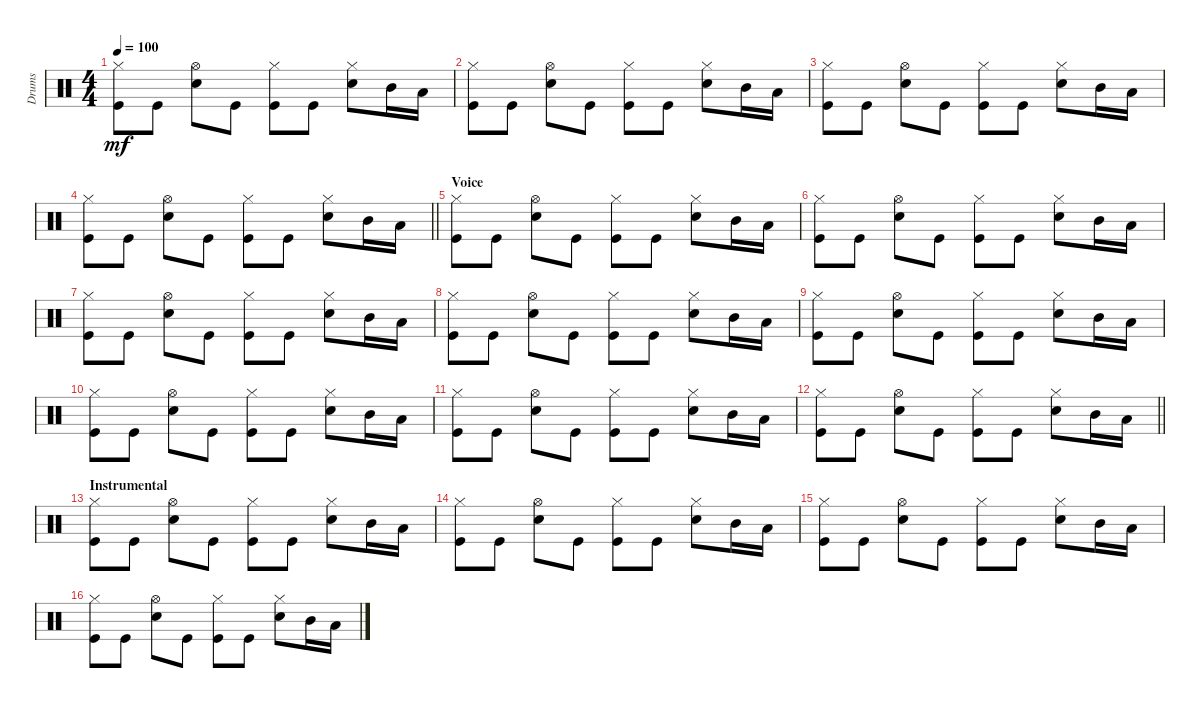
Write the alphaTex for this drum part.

\track ("Drums" "Drums") {instrument percussion}
\staff {score}
\articulation defaults
\ts (4 4)
\tempo 100
\clef neutral
\ks c
("Kick (hit)" "Hi-Hat (closed)").8{dy mf} "Kick (hit)".8 ("Electric Snare (hit)" "Hi-Hat (open)").8 "Kick (hit)".8 ("Kick (hit)" "Hi-Hat (closed)").8 "Kick (hit)".8 ("Electric Snare (hit)" "Hi-Hat (closed)").8 "Mid Tom (hit)".16 "Low Tom (hit)".16 |
("Kick (hit)" "Hi-Hat (closed)").8 "Kick (hit)".8 ("Electric Snare (hit)" "Hi-Hat (open)").8 "Kick (hit)".8 ("Kick (hit)" "Hi-Hat (closed)").8 "Kick (hit)".8 ("Electric Snare (hit)" "Hi-Hat (closed)").8 "Mid Tom (hit)".16 "Low Tom (hit)".16 |
("Kick (hit)" "Hi-Hat (closed)").8 "Kick (hit)".8 ("Electric Snare (hit)" "Hi-Hat (open)").8 "Kick (hit)".8 ("Kick (hit)" "Hi-Hat (closed)").8 "Kick (hit)".8 ("Electric Snare (hit)" "Hi-Hat (closed)").8 "Mid Tom (hit)".16 "Low Tom (hit)".16 |
\barLineRight lightlight
("Kick (hit)" "Hi-Hat (closed)").8 "Kick (hit)".8 ("Electric Snare (hit)" "Hi-Hat (open)").8 "Kick (hit)".8 ("Kick (hit)" "Hi-Hat (closed)").8 "Kick (hit)".8 ("Electric Snare (hit)" "Hi-Hat (closed)").8 "Mid Tom (hit)".16 "Low Tom (hit)".16 |
\section ("" "Voice")
("Kick (hit)" "Hi-Hat (closed)").8 "Kick (hit)".8 ("Electric Snare (hit)" "Hi-Hat (open)").8 "Kick (hit)".8 ("Kick (hit)" "Hi-Hat (closed)").8 "Kick (hit)".8 ("Electric Snare (hit)" "Hi-Hat (closed)").8 "Mid Tom (hit)".16 "Low Tom (hit)".16 |
("Kick (hit)" "Hi-Hat (closed)").8 "Kick (hit)".8 ("Electric Snare (hit)" "Hi-Hat (open)").8 "Kick (hit)".8 ("Kick (hit)" "Hi-Hat (closed)").8 "Kick (hit)".8 ("Electric Snare (hit)" "Hi-Hat (closed)").8 "Mid Tom (hit)".16 "Low Tom (hit)".16 |
("Kick (hit)" "Hi-Hat (closed)").8 "Kick (hit)".8 ("Electric Snare (hit)" "Hi-Hat (open)").8 "Kick (hit)".8 ("Kick (hit)" "Hi-Hat (closed)").8 "Kick (hit)".8 ("Electric Snare (hit)" "Hi-Hat (closed)").8 "Mid Tom (hit)".16 "Low Tom (hit)".16 |
("Kick (hit)" "Hi-Hat (closed)").8 "Kick (hit)".8 ("Electric Snare (hit)" "Hi-Hat (open)").8 "Kick (hit)".8 ("Kick (hit)" "Hi-Hat (closed)").8 "Kick (hit)".8 ("Electric Snare (hit)" "Hi-Hat (closed)").8 "Mid Tom (hit)".16 "Low Tom (hit)".16 |
("Kick (hit)" "Hi-Hat (closed)").8 "Kick (hit)".8 ("Electric Snare (hit)" "Hi-Hat (open)").8 "Kick (hit)".8 ("Kick (hit)" "Hi-Hat (closed)").8 "Kick (hit)".8 ("Electric Snare (hit)" "Hi-Hat (closed)").8 "Mid Tom (hit)".16 "Low Tom (hit)".16 |
("Kick (hit)" "Hi-Hat (closed)").8 "Kick (hit)".8 ("Electric Snare (hit)" "Hi-Hat (open)").8 "Kick (hit)".8 ("Kick (hit)" "Hi-Hat (closed)").8 "Kick (hit)".8 ("Electric Snare (hit)" "Hi-Hat (closed)").8 "Mid Tom (hit)".16 "Low Tom (hit)".16 |
("Kick (hit)" "Hi-Hat (closed)").8 "Kick (hit)".8 ("Electric Snare (hit)" "Hi-Hat (open)").8 "Kick (hit)".8 ("Kick (hit)" "Hi-Hat (closed)").8 "Kick (hit)".8 ("Electric Snare (hit)" "Hi-Hat (closed)").8 "Mid Tom (hit)".16 "Low Tom (hit)".16 |
\barLineRight lightlight
("Kick (hit)" "Hi-Hat (closed)").8 "Kick (hit)".8 ("Electric Snare (hit)" "Hi-Hat (open)").8 "Kick (hit)".8 ("Kick (hit)" "Hi-Hat (closed)").8 "Kick (hit)".8 ("Electric Snare (hit)" "Hi-Hat (closed)").8 "Mid Tom (hit)".16 "Low Tom (hit)".16 |
\section ("" "Instrumental")
("Kick (hit)" "Hi-Hat (closed)").8 "Kick (hit)".8 ("Electric Snare (hit)" "Hi-Hat (open)").8 "Kick (hit)".8 ("Kick (hit)" "Hi-Hat (closed)").8 "Kick (hit)".8 ("Electric Snare (hit)" "Hi-Hat (closed)").8 "Mid Tom (hit)".16 "Low Tom (hit)".16 |
("Kick (hit)" "Hi-Hat (closed)").8 "Kick (hit)".8 ("Electric Snare (hit)" "Hi-Hat (open)").8 "Kick (hit)".8 ("Kick (hit)" "Hi-Hat (closed)").8 "Kick (hit)".8 ("Electric Snare (hit)" "Hi-Hat (closed)").8 "Mid Tom (hit)".16 "Low Tom (hit)".16 |
("Kick (hit)" "Hi-Hat (closed)").8 "Kick (hit)".8 ("Electric Snare (hit)" "Hi-Hat (open)").8 "Kick (hit)".8 ("Kick (hit)" "Hi-Hat (closed)").8 "Kick (hit)".8 ("Electric Snare (hit)" "Hi-Hat (closed)").8 "Mid Tom (hit)".16 "Low Tom (hit)".16 |
("Kick (hit)" "Hi-Hat (closed)").8 "Kick (hit)".8 ("Electric Snare (hit)" "Hi-Hat (open)").8 "Kick (hit)".8 ("Kick (hit)" "Hi-Hat (closed)").8 "Kick (hit)".8 ("Electric Snare (hit)" "Hi-Hat (closed)").8 "Mid Tom (hit)".16 "Low Tom (hit)".16
